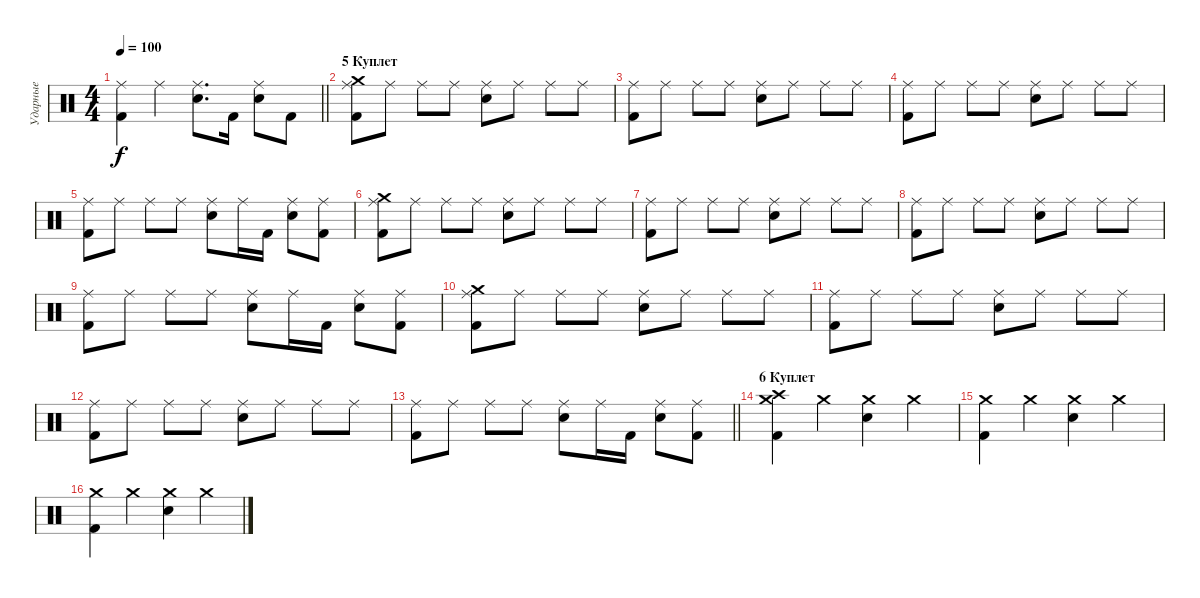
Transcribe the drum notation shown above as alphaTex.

\track ("Ударные" "Ударные") {instrument percussion}
\staff {score}
\articulation defaults
\ts (4 4)
\tempo 100
\clef neutral
\barLineRight lightlight
\ks c
("Ride (middle)" "Kick (hit) 2").4{dy f} "Ride (middle)".4 ("Ride (middle)" "Snare (hit) 2").8{d} "Kick (hit) 2".16 ("Ride (middle)" "Snare (hit) 2").8 "Kick (hit) 2".8 |
\section ("" "5 Куплет")
("Ride (middle)" "Kick (hit) 2" "Crash medium (hit)").8 "Ride (middle)".8 "Ride (middle)".8 "Ride (middle)".8 ("Ride (middle)" "Snare (hit) 2").8 "Ride (middle)".8 "Ride (middle)".8 "Ride (middle)".8 |
("Ride (middle)" "Kick (hit) 2").8 "Ride (middle)".8 "Ride (middle)".8 "Ride (middle)".8 ("Ride (middle)" "Snare (hit) 2").8 "Ride (middle)".8 "Ride (middle)".8 "Ride (middle)".8 |
("Ride (middle)" "Kick (hit) 2").8 "Ride (middle)".8 "Ride (middle)".8 "Ride (middle)".8 ("Ride (middle)" "Snare (hit) 2").8 "Ride (middle)".8 "Ride (middle)".8 "Ride (middle)".8 |
("Ride (middle)" "Kick (hit) 2").8 "Ride (middle)".8 "Ride (middle)".8 "Ride (middle)".8 ("Ride (middle)" "Snare (hit) 2").8 "Ride (middle)".16 "Kick (hit) 2".16 ("Ride (middle)" "Snare (hit) 2").8 ("Ride (middle)" "Kick (hit) 2").8 |
("Ride (middle)" "Kick (hit) 2" "Crash medium (hit)").8 "Ride (middle)".8 "Ride (middle)".8 "Ride (middle)".8 ("Ride (middle)" "Snare (hit) 2").8 "Ride (middle)".8 "Ride (middle)".8 "Ride (middle)".8 |
("Ride (middle)" "Kick (hit) 2").8 "Ride (middle)".8 "Ride (middle)".8 "Ride (middle)".8 ("Ride (middle)" "Snare (hit) 2").8 "Ride (middle)".8 "Ride (middle)".8 "Ride (middle)".8 |
("Ride (middle)" "Kick (hit) 2").8 "Ride (middle)".8 "Ride (middle)".8 "Ride (middle)".8 ("Ride (middle)" "Snare (hit) 2").8 "Ride (middle)".8 "Ride (middle)".8 "Ride (middle)".8 |
("Ride (middle)" "Kick (hit) 2").8 "Ride (middle)".8 "Ride (middle)".8 "Ride (middle)".8 ("Ride (middle)" "Snare (hit) 2").8 "Ride (middle)".16 "Kick (hit) 2".16 ("Ride (middle)" "Snare (hit) 2").8 ("Ride (middle)" "Kick (hit) 2").8 |
("Ride (middle)" "Kick (hit) 2" "Crash medium (hit)").8 "Ride (middle)".8 "Ride (middle)".8 "Ride (middle)".8 ("Ride (middle)" "Snare (hit) 2").8 "Ride (middle)".8 "Ride (middle)".8 "Ride (middle)".8 |
("Ride (middle)" "Kick (hit) 2").8 "Ride (middle)".8 "Ride (middle)".8 "Ride (middle)".8 ("Ride (middle)" "Snare (hit) 2").8 "Ride (middle)".8 "Ride (middle)".8 "Ride (middle)".8 |
("Ride (middle)" "Kick (hit) 2").8 "Ride (middle)".8 "Ride (middle)".8 "Ride (middle)".8 ("Ride (middle)" "Snare (hit) 2").8 "Ride (middle)".8 "Ride (middle)".8 "Ride (middle)".8 |
\barLineRight lightlight
("Ride (middle)" "Kick (hit) 2").8 "Ride (middle)".8 "Ride (middle)".8 "Ride (middle)".8 ("Ride (middle)" "Snare (hit) 2").8 "Ride (middle)".16 "Kick (hit) 2".16 ("Ride (middle)" "Snare (hit) 2").8 ("Ride (middle)" "Kick (hit) 2").8 |
\section ("" "6 Куплет")
("Crash medium (hit)" "Kick (hit) 2" "Crash high (hit)").4 "Crash medium (hit)".4 ("Crash medium (hit)" "Snare (hit) 2").4 "Crash medium (hit)".4 |
("Crash medium (hit)" "Kick (hit) 2").4 "Crash medium (hit)".4 ("Crash medium (hit)" "Snare (hit) 2").4 "Crash medium (hit)".4 |
("Crash medium (hit)" "Kick (hit) 2").4 "Crash medium (hit)".4 ("Crash medium (hit)" "Snare (hit) 2").4 "Crash medium (hit)".4
